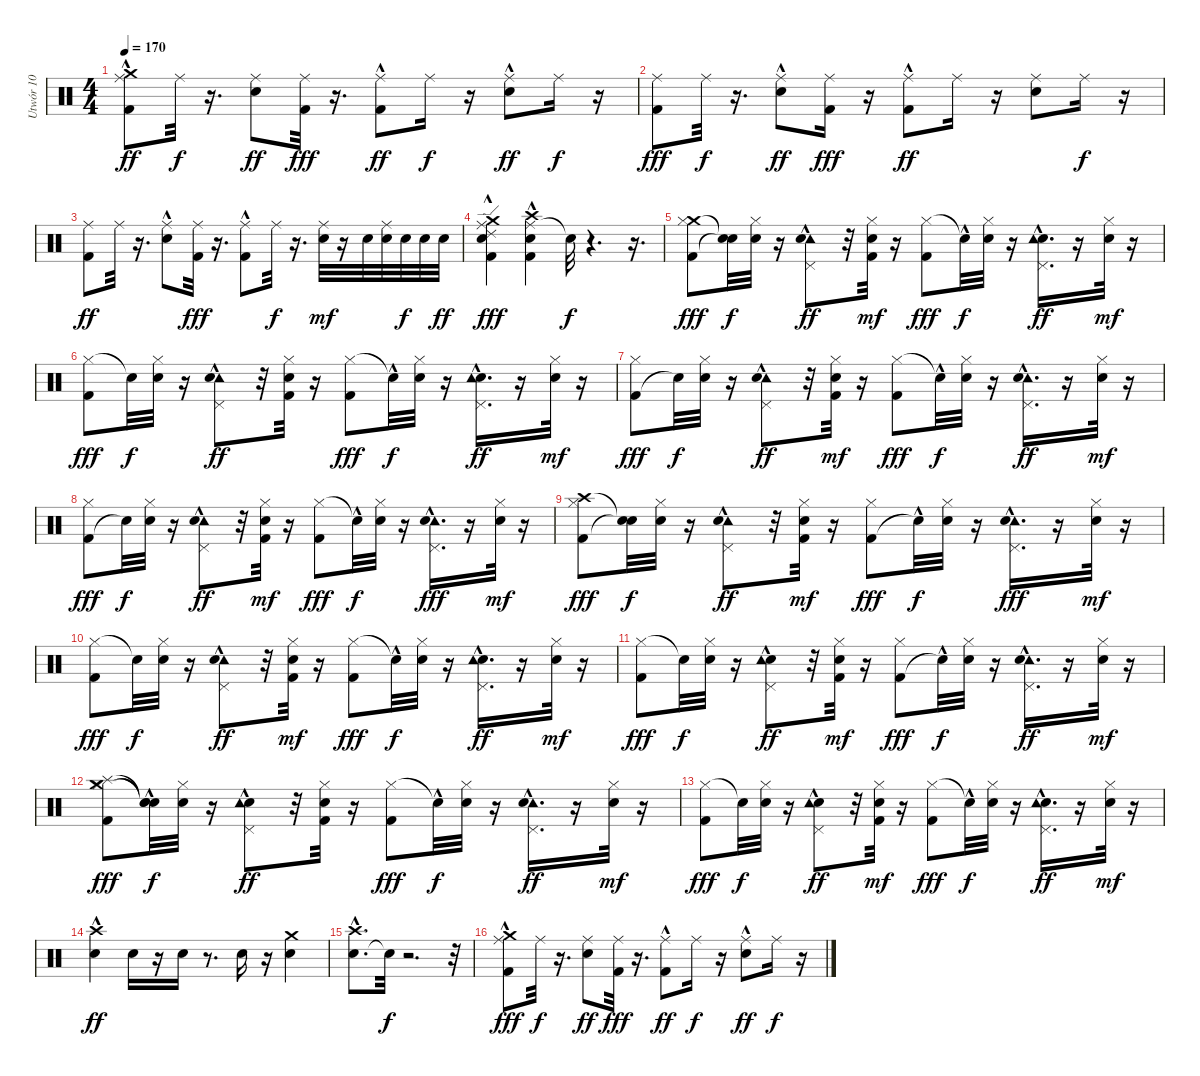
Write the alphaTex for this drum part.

\track ("Utwór 10" "Utwór 10") {instrument percussion}
\staff {score}
\articulation defaults
\ts (4 4)
\tempo 170
\clef neutral
\ks c
("Ride (middle)" "Kick (hit) 2" "Crash medium (hit)"{hac}).8{dy ff} "Ride (middle)".32{dy f} r.16{d} ("Ride (middle)" "Snare (hit) 2").8{dy ff} ("Ride (middle)" "Kick (hit) 2").32{dy fff} r.16{d} ("Kick (hit) 2"{hac} "Ride (middle)").8{dy ff} "Ride (middle)".16{dy f} r.16 ("Snare (hit) 2"{hac} "Ride (middle)").8{dy ff} "Ride (middle)".16{dy f} r.16 |
("Ride (middle)" "Kick (hit) 2").8{dy fff} "Ride (middle)".32{dy f} r.16{d} ("Ride (middle)" "Snare (hit) 2"{hac}).8{dy ff} ("Kick (hit) 2" "Ride (middle)").16{dy fff} r.16 ("Kick (hit) 2"{hac} "Ride (middle)").8{dy ff} "Ride (middle)".16 r.16 ("Ride (middle)" "Snare (hit) 2").8 "Ride (middle)".16{dy f} r.16 |
("Kick (hit) 2" "Ride (middle)").8{dy ff} "Ride (middle)".32 r.16{d} ("Snare (hit) 2"{hac} "Ride (middle)").8 ("Ride (middle)" "Kick (hit) 2").32{dy fff} r.16{d} ("Ride (middle)" "Kick (hit) 2"{hac}).8 "Ride (middle)".32{dy f} r.16{d} ("Ride (middle)" "Snare (hit) 2").32{dy mf} r.16 "Snare (hit) 2".32 ("Snare (hit) 2" "Ride (middle)").32 "Snare (hit) 2".32{dy f} "Snare (hit) 2".32 "Snare (hit) 2".32{dy ff} |
("Ride (edge) 2" "Snare (hit) 2" "Crash medium (hit)" "Ride (middle)" "Kick (hit) 2"{hac}).4{dy fff} ("Ride (middle)" "Snare (hit) 2" "Crash high (hit)" "Kick (hit) 2"{hac}).4 "Snare (hit)"{t}.32{dy f} r.4{d} r.16{d} |
("Kick (hit) 2" "Crash medium (hit)" "Hi-Hat (closed)").8{dy fff} ("Snare (hit)"{t} "Snare (hit)"{t}).32{dy f} ("Hi-Hat (closed)" "Snare (hit) 2").32 r.16 ("Tambourine (hit)" "Snare (hit) 2"{hac} "Pedal Hi-Hat (hit)").8{dy ff} r.32 ("Hi-Hat (closed)" "Kick (hit) 2" "Snare (hit) 2").32{dy mf} r.16 ("Hi-Hat (closed)" "Kick (hit) 2").8{dy fff} "Snare (hit)"{hac t}.32{dy f} ("Hi-Hat (closed)" "Snare (hit) 2").32 r.16 ("Snare (hit) 2" "Tambourine (hit)"{hac} "Pedal Hi-Hat (hit)"{hac}).16{d dy ff} r.16 ("Snare (hit) 2" "Hi-Hat (closed)").32{dy mf} r.16 |
("Hi-Hat (closed)" "Kick (hit) 2").8{dy fff} "Snare (hit)"{t}.32{dy f} ("Hi-Hat (closed)" "Snare (hit) 2").32 r.16 ("Pedal Hi-Hat (hit)" "Tambourine (hit)" "Snare (hit) 2"{hac}).8{dy ff} r.32 ("Snare (hit) 2" "Kick (hit) 2" "Hi-Hat (closed)").32 r.16 ("Hi-Hat (closed)" "Kick (hit) 2").8{dy fff} "Snare (hit)"{hac t}.32{dy f} ("Snare (hit) 2" "Hi-Hat (closed)").32 r.16 ("Snare (hit) 2" "Pedal Hi-Hat (hit)"{hac} "Tambourine (hit)"{hac}).16{d dy ff} r.16 ("Snare (hit) 2" "Hi-Hat (closed)").32{dy mf} r.16 |
("Kick (hit) 2" "Hi-Hat (closed)").8{dy fff} "Snare (hit)"{t}.32{dy f} ("Snare (hit) 2" "Hi-Hat (closed)").32 r.16 ("Pedal Hi-Hat (hit)" "Tambourine (hit)" "Snare (hit) 2"{hac}).8{dy ff} r.32 ("Kick (hit) 2" "Hi-Hat (closed)" "Snare (hit) 2").32{dy mf} r.16 ("Hi-Hat (closed)" "Kick (hit) 2").8{dy fff} "Snare (hit)"{hac t}.32{dy f} ("Snare (hit) 2" "Hi-Hat (closed)").32 r.16 ("Tambourine (hit)"{hac} "Snare (hit) 2" "Pedal Hi-Hat (hit)"{hac}).16{d dy ff} r.16 ("Snare (hit) 2" "Hi-Hat (closed)").32{dy mf} r.16 |
("Kick (hit) 2" "Hi-Hat (closed)").8{dy fff} "Snare (hit)"{t}.32{dy f} ("Snare (hit) 2" "Hi-Hat (closed)").32 r.16 ("Tambourine (hit)" "Pedal Hi-Hat (hit)" "Snare (hit) 2"{hac}).8{dy ff} r.32 ("Kick (hit) 2" "Hi-Hat (closed)" "Snare (hit) 2").32{dy mf} r.16 ("Hi-Hat (closed)" "Kick (hit) 2").8{dy fff} "Snare (hit)"{hac t}.32{dy f} ("Hi-Hat (closed)" "Snare (hit) 2").32 r.16 ("Pedal Hi-Hat (hit)"{hac} "Tambourine (hit)"{hac} "Snare (hit) 2").16{d dy fff} r.16 ("Hi-Hat (closed)" "Snare (hit) 2").32{dy mf} r.16 |
("Crash high (hit)" "Kick (hit) 2" "Hi-Hat (closed)").8{dy fff} ("Snare (hit)"{t} "Snare (hit)"{t}).32{dy f} ("Hi-Hat (closed)" "Snare (hit) 2").32 r.16 ("Tambourine (hit)" "Pedal Hi-Hat (hit)" "Snare (hit) 2"{hac}).8{dy ff} r.32 ("Kick (hit) 2" "Snare (hit) 2" "Hi-Hat (closed)").32{dy mf} r.16 ("Kick (hit) 2" "Hi-Hat (closed)").8{dy fff} "Snare (hit)"{hac t}.32{dy f} ("Snare (hit) 2" "Hi-Hat (closed)").32 r.16 ("Tambourine (hit)"{hac} "Pedal Hi-Hat (hit)"{hac} "Snare (hit) 2").16{d dy fff} r.16 ("Hi-Hat (closed)" "Snare (hit) 2").32{dy mf} r.16 |
("Hi-Hat (closed)" "Kick (hit) 2").8{dy fff} "Snare (hit)"{t}.32{dy f} ("Hi-Hat (closed)" "Snare (hit) 2").32 r.16 ("Tambourine (hit)" "Pedal Hi-Hat (hit)" "Snare (hit) 2"{hac}).8{dy ff} r.32 ("Hi-Hat (closed)" "Kick (hit) 2" "Snare (hit) 2").32{dy mf} r.16 ("Hi-Hat (closed)" "Kick (hit) 2").8{dy fff} "Snare (hit)"{hac t}.32{dy f} ("Hi-Hat (closed)" "Snare (hit) 2").32 r.16 ("Pedal Hi-Hat (hit)"{hac} "Snare (hit) 2" "Tambourine (hit)"{hac}).16{d dy ff} r.16 ("Hi-Hat (closed)" "Snare (hit) 2").32{dy mf} r.16 |
("Hi-Hat (closed)" "Kick (hit) 2").8{dy fff} "Snare (hit)"{t}.32{dy f} ("Hi-Hat (closed)" "Snare (hit) 2").32 r.16 ("Snare (hit) 2"{hac} "Tambourine (hit)" "Pedal Hi-Hat (hit)").8{dy ff} r.32 ("Kick (hit) 2" "Snare (hit) 2" "Hi-Hat (closed)").32{dy mf} r.16 ("Kick (hit) 2" "Hi-Hat (closed)").8{dy fff} "Snare (hit)"{hac t}.32{dy f} ("Snare (hit) 2" "Hi-Hat (closed)").32 r.16 ("Tambourine (hit)"{hac} "Snare (hit) 2" "Pedal Hi-Hat (hit)"{hac}).16{d dy ff} r.16 ("Snare (hit) 2" "Hi-Hat (closed)").32{dy mf} r.16 |
("Crash medium (hit)" "Hi-Hat (closed)" "Splash (hit)" "Kick (hit) 2").8{dy fff} ("Snare (hit)"{hac t} "Snare (hit)"{hac t} "Snare (hit)"{t}).32{dy f} ("Snare (hit) 2" "Hi-Hat (closed)").32 r.16 ("Pedal Hi-Hat (hit)" "Snare (hit) 2"{hac} "Tambourine (hit)").8{dy ff} r.32 ("Snare (hit) 2" "Kick (hit) 2" "Hi-Hat (closed)").32 r.16 ("Hi-Hat (closed)" "Kick (hit) 2").8{dy fff} "Snare (hit)"{hac t}.32{dy f} ("Snare (hit) 2" "Hi-Hat (closed)").32 r.16 ("Tambourine (hit)"{hac} "Snare (hit) 2" "Pedal Hi-Hat (hit)"{hac}).16{d dy ff} r.16 ("Hi-Hat (closed)" "Snare (hit) 2").32{dy mf} r.16 |
("Hi-Hat (closed)" "Kick (hit) 2").8{dy fff} "Snare (hit)"{t}.32{dy f} ("Hi-Hat (closed)" "Snare (hit) 2").32 r.16 ("Pedal Hi-Hat (hit)" "Snare (hit) 2"{hac} "Tambourine (hit)").8{dy ff} r.32 ("Hi-Hat (closed)" "Kick (hit) 2" "Snare (hit) 2").32{dy mf} r.16 ("Hi-Hat (closed)" "Kick (hit) 2").8{dy fff} "Snare (hit)"{hac t}.32{dy f} ("Snare (hit) 2" "Hi-Hat (closed)").32 r.16 ("Snare (hit) 2" "Tambourine (hit)"{hac} "Pedal Hi-Hat (hit)"{hac}).16{d dy ff} r.16 ("Snare (hit) 2" "Hi-Hat (closed)").32{dy mf} r.16 |
("Crash high (hit)" "Snare (hit) 2"{hac}).4{dy ff} "Snare (hit) 2".16 r.16 "Snare (hit) 2".16 r.8{d} "Snare (hit) 2".16 r.16 ("Snare (hit) 2" "Crash medium (hit)").4 |
("Snare (hit) 2"{hac} "Crash high (hit)"{hac}).8{d} "Snare (hit)"{t}.32{dy f} r.2{d} r.32 |
("Crash medium (hit)"{hac} "Ride (middle)" "Kick (hit) 2").8{dy fff} "Ride (middle)".32{dy f} r.16{d} ("Snare (hit) 2" "Ride (middle)").8{dy ff} ("Kick (hit) 2" "Ride (middle)").32{dy fff} r.16{d} ("Kick (hit) 2"{hac} "Ride (middle)").8{dy ff} "Ride (middle)".16{dy f} r.16 ("Ride (middle)" "Snare (hit) 2"{hac}).8{dy ff} "Ride (middle)".16{dy f} r.16
